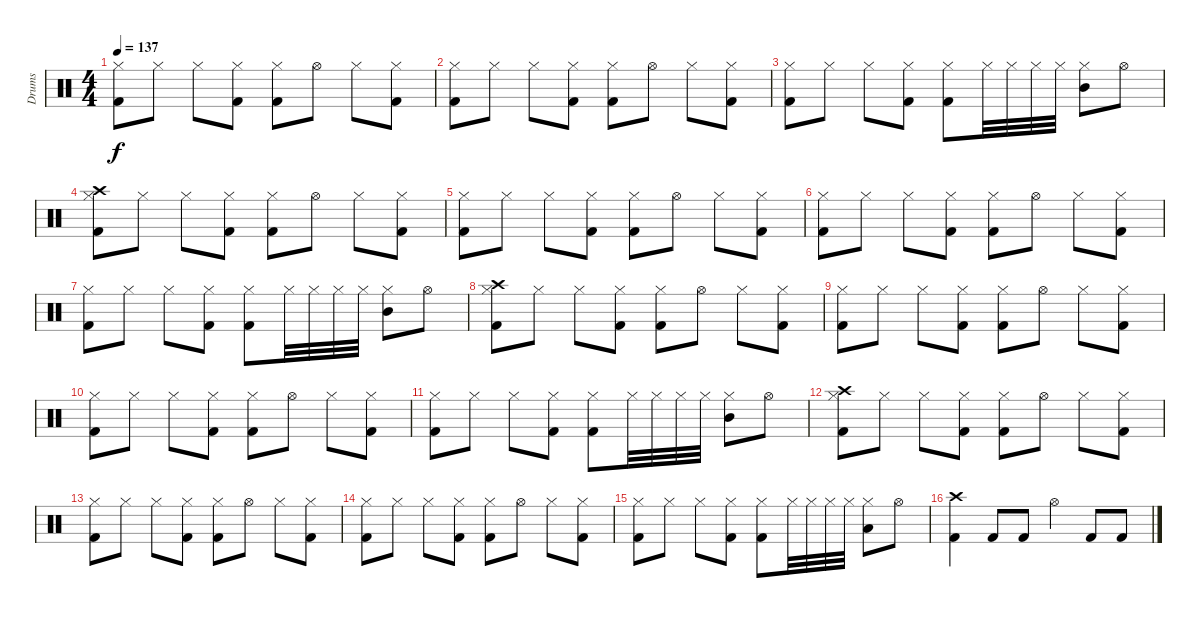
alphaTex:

\track ("Drums" "Drums") {instrument percussion}
\staff {score}
\articulation defaults
\ts (4 4)
\tempo 137
\clef neutral
\ks c
("Hi-Hat (closed)" "Kick (hit) 2").8{dy f} "Hi-Hat (closed)".8 "Hi-Hat (closed)".8 ("Hi-Hat (closed)" "Kick (hit) 2").8 ("Hi-Hat (closed)" "Kick (hit) 2").8 "Hi-Hat (open)".8 "Hi-Hat (closed)".8 ("Hi-Hat (closed)" "Kick (hit) 2").8 |
("Hi-Hat (closed)" "Kick (hit) 2").8 "Hi-Hat (closed)".8 "Hi-Hat (closed)".8 ("Hi-Hat (closed)" "Kick (hit) 2").8 ("Hi-Hat (closed)" "Kick (hit) 2").8 "Hi-Hat (open)".8 "Hi-Hat (closed)".8 ("Hi-Hat (closed)" "Kick (hit) 2").8 |
("Hi-Hat (closed)" "Kick (hit) 2").8 "Hi-Hat (closed)".8 "Hi-Hat (closed)".8 ("Hi-Hat (closed)" "Kick (hit) 2").8 ("Hi-Hat (closed)" "Kick (hit) 2").8 "Hi-Hat (closed)".32 "Hi-Hat (closed)".32 "Hi-Hat (closed)".32 "Hi-Hat (closed)".32 ("Hi-Hat (closed)" "Mid Tom (hit)").8 "Hi-Hat (open)".8 |
("Crash high (hit)" "Hi-Hat (closed)" "Kick (hit) 2").8 "Hi-Hat (closed)".8 "Hi-Hat (closed)".8 ("Hi-Hat (closed)" "Kick (hit) 2").8 ("Hi-Hat (closed)" "Kick (hit) 2").8 "Hi-Hat (open)".8 "Hi-Hat (closed)".8 ("Hi-Hat (closed)" "Kick (hit) 2").8 |
("Hi-Hat (closed)" "Kick (hit) 2").8 "Hi-Hat (closed)".8 "Hi-Hat (closed)".8 ("Hi-Hat (closed)" "Kick (hit) 2").8 ("Hi-Hat (closed)" "Kick (hit) 2").8 "Hi-Hat (open)".8 "Hi-Hat (closed)".8 ("Hi-Hat (closed)" "Kick (hit) 2").8 |
("Hi-Hat (closed)" "Kick (hit) 2").8 "Hi-Hat (closed)".8 "Hi-Hat (closed)".8 ("Hi-Hat (closed)" "Kick (hit) 2").8 ("Hi-Hat (closed)" "Kick (hit) 2").8 "Hi-Hat (open)".8 "Hi-Hat (closed)".8 ("Hi-Hat (closed)" "Kick (hit) 2").8 |
("Hi-Hat (closed)" "Kick (hit) 2").8 "Hi-Hat (closed)".8 "Hi-Hat (closed)".8 ("Hi-Hat (closed)" "Kick (hit) 2").8 ("Hi-Hat (closed)" "Kick (hit) 2").8 "Hi-Hat (closed)".32 "Hi-Hat (closed)".32 "Hi-Hat (closed)".32 "Hi-Hat (closed)".32 ("Hi-Hat (closed)" "Mid Tom (hit)").8 "Hi-Hat (open)".8 |
("Crash high (hit)" "Hi-Hat (closed)" "Kick (hit) 2").8 "Hi-Hat (closed)".8 "Hi-Hat (closed)".8 ("Hi-Hat (closed)" "Kick (hit) 2").8 ("Hi-Hat (closed)" "Kick (hit) 2").8 "Hi-Hat (open)".8 "Hi-Hat (closed)".8 ("Hi-Hat (closed)" "Kick (hit) 2").8 |
("Hi-Hat (closed)" "Kick (hit) 2").8 "Hi-Hat (closed)".8 "Hi-Hat (closed)".8 ("Hi-Hat (closed)" "Kick (hit) 2").8 ("Hi-Hat (closed)" "Kick (hit) 2").8 "Hi-Hat (open)".8 "Hi-Hat (closed)".8 ("Hi-Hat (closed)" "Kick (hit) 2").8 |
("Hi-Hat (closed)" "Kick (hit) 2").8 "Hi-Hat (closed)".8 "Hi-Hat (closed)".8 ("Hi-Hat (closed)" "Kick (hit) 2").8 ("Hi-Hat (closed)" "Kick (hit) 2").8 "Hi-Hat (open)".8 "Hi-Hat (closed)".8 ("Hi-Hat (closed)" "Kick (hit) 2").8 |
("Hi-Hat (closed)" "Kick (hit) 2").8 "Hi-Hat (closed)".8 "Hi-Hat (closed)".8 ("Hi-Hat (closed)" "Kick (hit) 2").8 ("Hi-Hat (closed)" "Kick (hit) 2").8 "Hi-Hat (closed)".32 "Hi-Hat (closed)".32 "Hi-Hat (closed)".32 "Hi-Hat (closed)".32 ("Hi-Hat (closed)" "Mid Tom (hit)").8 "Hi-Hat (open)".8 |
("Crash high (hit)" "Hi-Hat (closed)" "Kick (hit) 2").8 "Hi-Hat (closed)".8 "Hi-Hat (closed)".8 ("Hi-Hat (closed)" "Kick (hit) 2").8 ("Hi-Hat (closed)" "Kick (hit) 2").8 "Hi-Hat (open)".8 "Hi-Hat (closed)".8 ("Hi-Hat (closed)" "Kick (hit) 2").8 |
("Hi-Hat (closed)" "Kick (hit) 2").8 "Hi-Hat (closed)".8 "Hi-Hat (closed)".8 ("Hi-Hat (closed)" "Kick (hit) 2").8 ("Hi-Hat (closed)" "Kick (hit) 2").8 "Hi-Hat (open)".8 "Hi-Hat (closed)".8 ("Hi-Hat (closed)" "Kick (hit) 2").8 |
("Hi-Hat (closed)" "Kick (hit) 2").8 "Hi-Hat (closed)".8 "Hi-Hat (closed)".8 ("Hi-Hat (closed)" "Kick (hit) 2").8 ("Hi-Hat (closed)" "Kick (hit) 2").8 "Hi-Hat (open)".8 "Hi-Hat (closed)".8 ("Hi-Hat (closed)" "Kick (hit) 2").8 |
("Hi-Hat (closed)" "Kick (hit) 2").8 "Hi-Hat (closed)".8 "Hi-Hat (closed)".8 ("Hi-Hat (closed)" "Kick (hit) 2").8 ("Hi-Hat (closed)" "Kick (hit) 2").8 "Hi-Hat (closed)".32 "Hi-Hat (closed)".32 "Hi-Hat (closed)".32 "Hi-Hat (closed)".32 ("Hi-Hat (closed)" "Low Tom (hit)").8 "Hi-Hat (open)".8 |
("Crash high (hit)" "Kick (hit) 2").4 "Kick (hit) 2".8 "Kick (hit) 2".8 "Hi-Hat (open)".4 "Kick (hit) 2".8 "Kick (hit) 2".8
